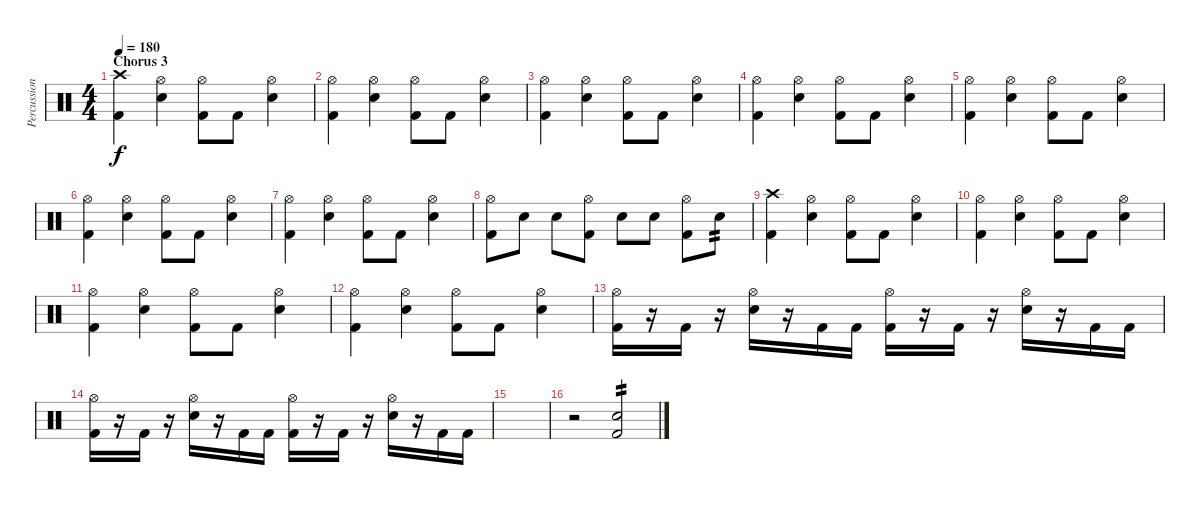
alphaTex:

\track ("Percussion" "Percussion") {instrument percussion}
\staff {score}
\articulation defaults
\ts (4 4)
\section ("" "Chorus 3")
\tempo 180
\clef neutral
\ks c
("Crash high (hit)" "Kick (hit) 2").4{dy f} ("Hi-Hat (open)" "Snare (hit) 2").4 ("Hi-Hat (open)" "Kick (hit) 2").8 "Kick (hit) 2".8 ("Hi-Hat (open)" "Snare (hit) 2").4 |
("Hi-Hat (open)" "Kick (hit) 2").4 ("Hi-Hat (open)" "Snare (hit) 2").4 ("Hi-Hat (open)" "Kick (hit) 2").8 "Kick (hit) 2".8 ("Hi-Hat (open)" "Snare (hit) 2").4 |
("Hi-Hat (open)" "Kick (hit) 2").4 ("Hi-Hat (open)" "Snare (hit) 2").4 ("Hi-Hat (open)" "Kick (hit) 2").8 "Kick (hit) 2".8 ("Hi-Hat (open)" "Snare (hit) 2").4 |
("Hi-Hat (open)" "Kick (hit) 2").4 ("Hi-Hat (open)" "Snare (hit) 2").4 ("Hi-Hat (open)" "Kick (hit) 2").8 "Kick (hit) 2".8 ("Hi-Hat (open)" "Snare (hit) 2").4 |
("Hi-Hat (open)" "Kick (hit) 2").4 ("Hi-Hat (open)" "Snare (hit) 2").4 ("Hi-Hat (open)" "Kick (hit) 2").8 "Kick (hit) 2".8 ("Hi-Hat (open)" "Snare (hit) 2").4 |
("Hi-Hat (open)" "Kick (hit) 2").4 ("Hi-Hat (open)" "Snare (hit) 2").4 ("Hi-Hat (open)" "Kick (hit) 2").8 "Kick (hit) 2".8 ("Hi-Hat (open)" "Snare (hit) 2").4 |
("Hi-Hat (open)" "Kick (hit) 2").4 ("Hi-Hat (open)" "Snare (hit) 2").4 ("Hi-Hat (open)" "Kick (hit) 2").8 "Kick (hit) 2".8 ("Hi-Hat (open)" "Snare (hit) 2").4 |
("Hi-Hat (open)" "Kick (hit) 2").8 "Snare (hit) 2".8 "Snare (hit) 2".8 ("Hi-Hat (open)" "Kick (hit) 2").8 "Snare (hit) 2".8 "Snare (hit) 2".8 ("Hi-Hat (open)" "Kick (hit) 2").8 "Snare (hit) 2".8{tp 2} |
("Crash high (hit)" "Kick (hit) 2").4 ("Hi-Hat (open)" "Snare (hit) 2").4 ("Hi-Hat (open)" "Kick (hit) 2").8 "Kick (hit) 2".8 ("Hi-Hat (open)" "Snare (hit) 2").4 |
("Hi-Hat (open)" "Kick (hit) 2").4 ("Hi-Hat (open)" "Snare (hit) 2").4 ("Hi-Hat (open)" "Kick (hit) 2").8 "Kick (hit) 2".8 ("Hi-Hat (open)" "Snare (hit) 2").4 |
("Hi-Hat (open)" "Kick (hit) 2").4 ("Hi-Hat (open)" "Snare (hit) 2").4 ("Hi-Hat (open)" "Kick (hit) 2").8 "Kick (hit) 2".8 ("Hi-Hat (open)" "Snare (hit) 2").4 |
("Hi-Hat (open)" "Kick (hit) 2").4 ("Hi-Hat (open)" "Snare (hit) 2").4 ("Hi-Hat (open)" "Kick (hit) 2").8 "Kick (hit) 2".8 ("Hi-Hat (open)" "Snare (hit) 2").4 |
("Hi-Hat (open)" "Kick (hit) 2").16 r.16 "Kick (hit) 2".16 r.16 ("Hi-Hat (open)" "Snare (hit) 2").16 r.16 "Kick (hit) 2".16 "Kick (hit) 2".16 ("Hi-Hat (open)" "Kick (hit) 2").16 r.16 "Kick (hit) 2".16 r.16 ("Hi-Hat (open)" "Snare (hit) 2").16 r.16 "Kick (hit) 2".16 "Kick (hit) 2".16 |
("Hi-Hat (open)" "Kick (hit) 2").16 r.16 "Kick (hit) 2".16 r.16 ("Hi-Hat (open)" "Snare (hit) 2").16 r.16 "Kick (hit) 2".16 "Kick (hit) 2".16 ("Hi-Hat (open)" "Kick (hit) 2").16 r.16 "Kick (hit) 2".16 r.16 ("Hi-Hat (open)" "Snare (hit) 2").16 r.16 "Kick (hit) 2".16 "Kick (hit) 2".16 |
|
r.2 ("Snare (hit) 2" "Kick (hit) 2").2{tp 2}
